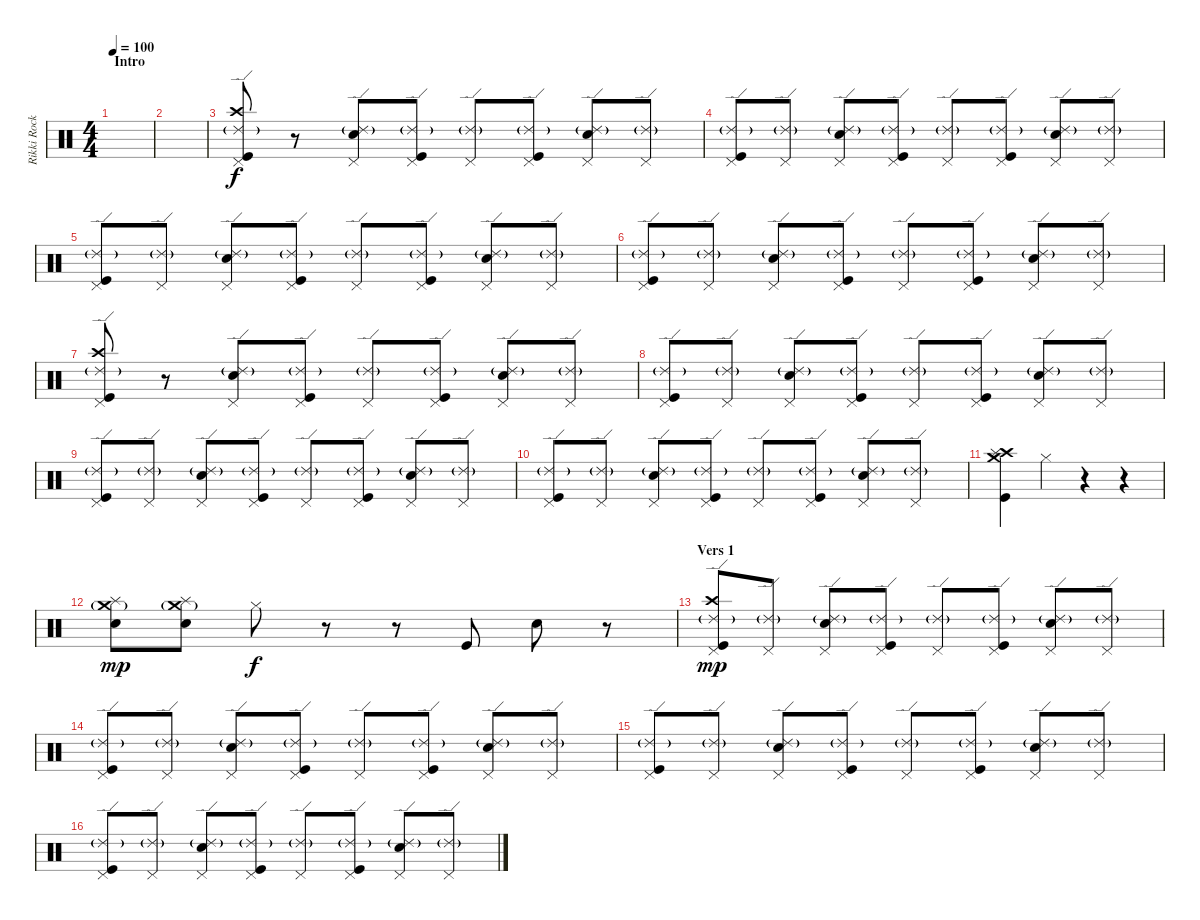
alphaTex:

\track ("Rikki Rockett Drums" "Rikki Rock") {instrument percussion}
\staff {score}
\articulation defaults
\ts (4 4)
\section ("" "Intro")
\tempo 100
\clef neutral
\ks c
|
|
("Ride (edge) 2"{g} "Pedal Hi-Hat (hit)" "Crash high (hit)" "Kick (hit)").8 r.8 ("Ride (edge) 2"{g} "Pedal Hi-Hat (hit)" "Snare (hit) 2").8 ("Ride (edge) 2"{g} "Pedal Hi-Hat (hit)" "Kick (hit)").8 ("Ride (edge) 2"{g} "Pedal Hi-Hat (hit)").8 ("Ride (edge) 2"{g} "Pedal Hi-Hat (hit)" "Kick (hit)").8 ("Ride (edge) 2"{g} "Pedal Hi-Hat (hit)" "Snare (hit) 2").8 ("Ride (edge) 2"{g} "Pedal Hi-Hat (hit)").8 |
("Ride (edge) 2"{g} "Pedal Hi-Hat (hit)" "Kick (hit)").8 ("Ride (edge) 2"{g} "Pedal Hi-Hat (hit)").8 ("Ride (edge) 2"{g} "Pedal Hi-Hat (hit)" "Snare (hit) 2").8 ("Ride (edge) 2"{g} "Pedal Hi-Hat (hit)" "Kick (hit)").8 ("Ride (edge) 2"{g} "Pedal Hi-Hat (hit)").8 ("Ride (edge) 2"{g} "Pedal Hi-Hat (hit)" "Kick (hit)").8 ("Ride (edge) 2"{g} "Pedal Hi-Hat (hit)" "Snare (hit) 2").8 ("Ride (edge) 2"{g} "Pedal Hi-Hat (hit)").8 |
("Ride (edge) 2"{g} "Pedal Hi-Hat (hit)" "Kick (hit)").8 ("Ride (edge) 2"{g} "Pedal Hi-Hat (hit)").8 ("Ride (edge) 2"{g} "Pedal Hi-Hat (hit)" "Snare (hit) 2").8 ("Ride (edge) 2"{g} "Pedal Hi-Hat (hit)" "Kick (hit)").8 ("Ride (edge) 2"{g} "Pedal Hi-Hat (hit)").8 ("Ride (edge) 2"{g} "Pedal Hi-Hat (hit)" "Kick (hit)").8 ("Ride (edge) 2"{g} "Pedal Hi-Hat (hit)" "Snare (hit) 2").8 ("Ride (edge) 2"{g} "Pedal Hi-Hat (hit)").8 |
("Ride (edge) 2"{g} "Pedal Hi-Hat (hit)" "Kick (hit)").8 ("Ride (edge) 2"{g} "Pedal Hi-Hat (hit)").8 ("Ride (edge) 2"{g} "Pedal Hi-Hat (hit)" "Snare (hit) 2").8 ("Ride (edge) 2"{g} "Pedal Hi-Hat (hit)" "Kick (hit)").8 ("Ride (edge) 2"{g} "Pedal Hi-Hat (hit)").8 ("Ride (edge) 2"{g} "Pedal Hi-Hat (hit)" "Kick (hit)").8 ("Ride (edge) 2"{g} "Pedal Hi-Hat (hit)" "Snare (hit) 2").8 ("Ride (edge) 2"{g} "Pedal Hi-Hat (hit)").8 |
("Ride (edge) 2"{g} "Pedal Hi-Hat (hit)" "Crash high (hit)" "Kick (hit)").8 r.8 ("Ride (edge) 2"{g} "Pedal Hi-Hat (hit)" "Snare (hit) 2").8 ("Ride (edge) 2"{g} "Pedal Hi-Hat (hit)" "Kick (hit)").8 ("Ride (edge) 2"{g} "Pedal Hi-Hat (hit)").8 ("Ride (edge) 2"{g} "Pedal Hi-Hat (hit)" "Kick (hit)").8 ("Ride (edge) 2"{g} "Pedal Hi-Hat (hit)" "Snare (hit) 2").8 ("Ride (edge) 2"{g} "Pedal Hi-Hat (hit)").8 |
("Ride (edge) 2"{g} "Pedal Hi-Hat (hit)" "Kick (hit)").8 ("Ride (edge) 2"{g} "Pedal Hi-Hat (hit)").8 ("Ride (edge) 2"{g} "Pedal Hi-Hat (hit)" "Snare (hit) 2").8 ("Ride (edge) 2"{g} "Pedal Hi-Hat (hit)" "Kick (hit)").8 ("Ride (edge) 2"{g} "Pedal Hi-Hat (hit)").8 ("Ride (edge) 2"{g} "Pedal Hi-Hat (hit)" "Kick (hit)").8 ("Ride (edge) 2"{g} "Pedal Hi-Hat (hit)" "Snare (hit) 2").8 ("Ride (edge) 2"{g} "Pedal Hi-Hat (hit)").8 |
("Ride (edge) 2"{g} "Pedal Hi-Hat (hit)" "Kick (hit)").8 ("Ride (edge) 2"{g} "Pedal Hi-Hat (hit)").8 ("Ride (edge) 2"{g} "Pedal Hi-Hat (hit)" "Snare (hit) 2").8 ("Ride (edge) 2"{g} "Pedal Hi-Hat (hit)" "Kick (hit)").8 ("Ride (edge) 2"{g} "Pedal Hi-Hat (hit)").8 ("Ride (edge) 2"{g} "Pedal Hi-Hat (hit)" "Kick (hit)").8 ("Ride (edge) 2"{g} "Pedal Hi-Hat (hit)" "Snare (hit) 2").8 ("Ride (edge) 2"{g} "Pedal Hi-Hat (hit)").8 |
("Ride (edge) 2"{g} "Pedal Hi-Hat (hit)" "Kick (hit)").8 ("Ride (edge) 2"{g} "Pedal Hi-Hat (hit)").8 ("Ride (edge) 2"{g} "Pedal Hi-Hat (hit)" "Snare (hit) 2").8 ("Ride (edge) 2"{g} "Pedal Hi-Hat (hit)" "Kick (hit)").8 ("Ride (edge) 2"{g} "Pedal Hi-Hat (hit)").8 ("Ride (edge) 2"{g} "Pedal Hi-Hat (hit)" "Kick (hit)").8 ("Ride (edge) 2"{g} "Pedal Hi-Hat (hit)" "Snare (hit) 2").8 ("Ride (edge) 2"{g} "Pedal Hi-Hat (hit)").8 |
("Crash high (hit)" "Crash medium (hit)" "Splash (hit)" "Kick (hit)").4{dy f} "Hi-Hat (closed)".4 r.4 r.4 |
("Crash medium (hit)"{g} "Splash (hit)" "Snare (hit) 2").8{dy mp} ("Crash medium (hit)"{g} "Splash (hit)" "Snare (hit) 2").8 "Hi-Hat (closed)".8{dy f} r.8 r.8 "Kick (hit)".8 "Snare (hit) 2".8 r.8 |
\section ("" "Vers 1")
("Ride (edge) 2"{g} "Pedal Hi-Hat (hit)" "Crash high (hit)" "Kick (hit)").8{dy mp} ("Ride (edge) 2"{g} "Pedal Hi-Hat (hit)").8 ("Ride (edge) 2"{g} "Pedal Hi-Hat (hit)" "Snare (hit) 2").8 ("Ride (edge) 2"{g} "Pedal Hi-Hat (hit)" "Kick (hit)").8 ("Ride (edge) 2"{g} "Pedal Hi-Hat (hit)").8 ("Ride (edge) 2"{g} "Pedal Hi-Hat (hit)" "Kick (hit)").8 ("Ride (edge) 2"{g} "Pedal Hi-Hat (hit)" "Snare (hit) 2").8 ("Ride (edge) 2"{g} "Pedal Hi-Hat (hit)").8 |
("Ride (edge) 2"{g} "Pedal Hi-Hat (hit)" "Kick (hit)").8 ("Ride (edge) 2"{g} "Pedal Hi-Hat (hit)").8 ("Ride (edge) 2"{g} "Pedal Hi-Hat (hit)" "Snare (hit) 2").8 ("Ride (edge) 2"{g} "Pedal Hi-Hat (hit)" "Kick (hit)").8 ("Ride (edge) 2"{g} "Pedal Hi-Hat (hit)").8 ("Ride (edge) 2"{g} "Pedal Hi-Hat (hit)" "Kick (hit)").8 ("Ride (edge) 2"{g} "Pedal Hi-Hat (hit)" "Snare (hit) 2").8 ("Ride (edge) 2"{g} "Pedal Hi-Hat (hit)").8 |
("Ride (edge) 2"{g} "Pedal Hi-Hat (hit)" "Kick (hit)").8 ("Ride (edge) 2"{g} "Pedal Hi-Hat (hit)").8 ("Ride (edge) 2"{g} "Pedal Hi-Hat (hit)" "Snare (hit) 2").8 ("Ride (edge) 2"{g} "Pedal Hi-Hat (hit)" "Kick (hit)").8 ("Ride (edge) 2"{g} "Pedal Hi-Hat (hit)").8 ("Ride (edge) 2"{g} "Pedal Hi-Hat (hit)" "Kick (hit)").8 ("Ride (edge) 2"{g} "Pedal Hi-Hat (hit)" "Snare (hit) 2").8 ("Ride (edge) 2"{g} "Pedal Hi-Hat (hit)").8 |
("Ride (edge) 2"{g} "Pedal Hi-Hat (hit)" "Kick (hit)").8 ("Ride (edge) 2"{g} "Pedal Hi-Hat (hit)").8 ("Ride (edge) 2"{g} "Pedal Hi-Hat (hit)" "Snare (hit) 2").8 ("Ride (edge) 2"{g} "Pedal Hi-Hat (hit)" "Kick (hit)").8 ("Ride (edge) 2"{g} "Pedal Hi-Hat (hit)").8 ("Ride (edge) 2"{g} "Pedal Hi-Hat (hit)" "Kick (hit)").8 ("Ride (edge) 2"{g} "Pedal Hi-Hat (hit)" "Snare (hit) 2").8 ("Ride (edge) 2"{g} "Pedal Hi-Hat (hit)").8
